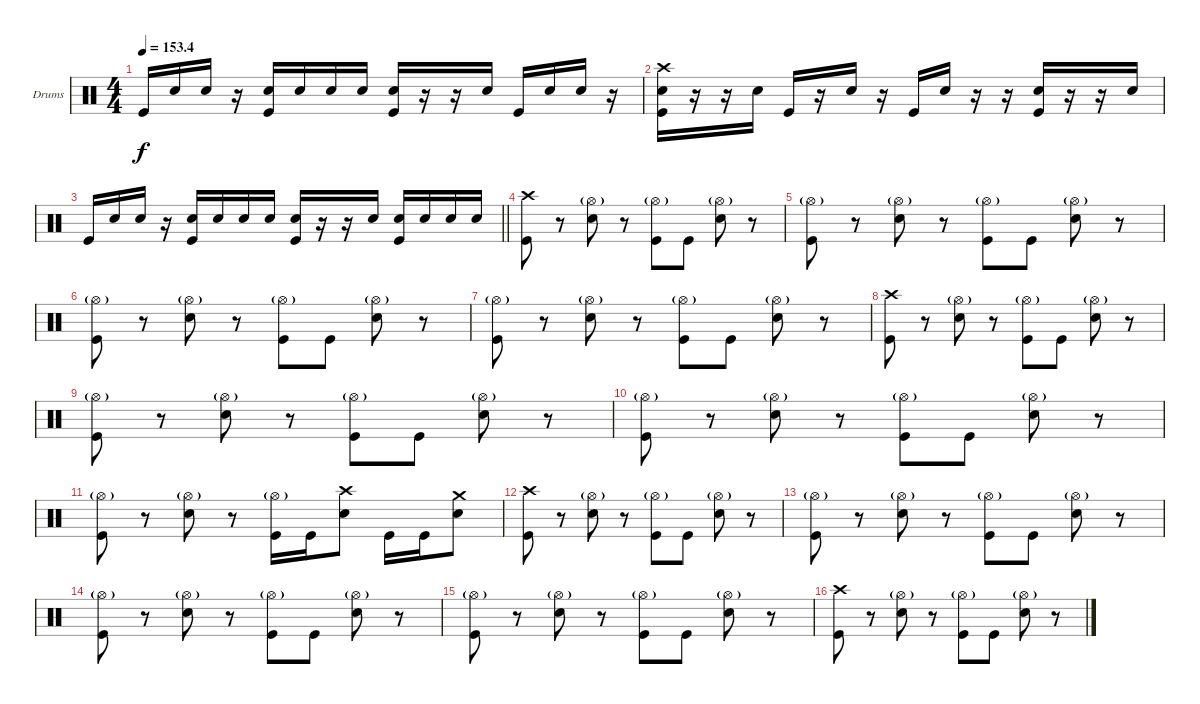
\bracketExtendMode groupsimilarinstruments
\firstSystemTrackNameOrientation horizontal
\otherSystemsTrackNameOrientation horizontal
\track ("Drumkit" "Drums") {instrument percussion}
\staff {score}
\articulation defaults
\ts (4 4)
\tempo
153.4
\accidentals auto
\clef neutral
\ottava regular
\simile none
\ks c "Kick (hit)".16{dy f} "Snare (hit) 2".16 "Snare (hit) 2".16
r.16 ("Snare (hit) 2" "Kick (hit)").16 "Snare (hit) 2".16 "Snare (hit) 2".16 "Snare (hit) 2".16 ("Snare (hit) 2" "Kick (hit)").16 r.16 r.16 "Snare (hit) 2".16 "Kick (hit)".16 "Snare (hit) 2".16 "Snare (hit) 2".16 r.16 |
("Crash high (hit)" "Snare (hit) 2" "Kick (hit)").16 r.16 r.16 "Snare (hit) 2".16 "Kick (hit)".16 r.16 "Snare (hit) 2".16 r.16 "Kick (hit)".16 "Snare (hit) 2".16 r.16 r.16 ("Snare (hit) 2" "Kick (hit)").16 r.16 r.16 "Snare (hit) 2".16 |
\barLineRight lightlight "Kick (hit)".16 "Snare (hit) 2".16 "Snare (hit) 2".16
r.16 ("Snare (hit) 2" "Kick (hit)").16 "Snare (hit) 2".16 "Snare (hit) 2".16 "Snare (hit) 2".16 ("Snare (hit) 2" "Kick (hit)").16 r.16 r.16 "Snare (hit) 2".16 ("Snare (hit) 2" "Kick (hit)").16 "Snare (hit) 2".16 "Snare (hit) 2".16 "Snare (hit) 2".16 |
("Crash high (hit)" "Kick (hit)").8 r.8 ("Hi-Hat (open)"{g} "Snare (hit) 2").8 r.8 ("Hi-Hat (open)"{g} "Kick (hit)").8 "Kick (hit)".8 ("Hi-Hat (open)"{g} "Snare (hit) 2").8 r.8 |
("Hi-Hat (open)"{g} "Kick (hit)").8 r.8 ("Hi-Hat (open)"{g} "Snare (hit) 2").8 r.8 ("Hi-Hat (open)"{g} "Kick (hit)").8 "Kick (hit)".8 ("Hi-Hat (open)"{g} "Snare (hit) 2").8 r.8 |
("Hi-Hat (open)"{g} "Kick (hit)").8 r.8 ("Hi-Hat (open)"{g} "Snare (hit) 2").8 r.8 ("Hi-Hat (open)"{g} "Kick (hit)").8 "Kick (hit)".8 ("Hi-Hat (open)"{g} "Snare (hit) 2").8 r.8 |
("Hi-Hat (open)"{g} "Kick (hit)").8 r.8 ("Hi-Hat (open)"{g} "Snare (hit) 2").8 r.8 ("Hi-Hat (open)"{g} "Kick (hit)").8 "Kick (hit)".8 ("Hi-Hat (open)"{g} "Snare (hit) 2").8 r.8 |
("Crash high (hit)" "Kick (hit)").8 r.8 ("Hi-Hat (open)"{g} "Snare (hit) 2").8 r.8 ("Hi-Hat (open)"{g} "Kick (hit)").8 "Kick (hit)".8 ("Hi-Hat (open)"{g} "Snare (hit) 2").8 r.8 |
("Hi-Hat (open)"{g} "Kick (hit)").8 r.8 ("Hi-Hat (open)"{g} "Snare (hit) 2").8 r.8 ("Hi-Hat (open)"{g} "Kick (hit)").8 "Kick (hit)".8 ("Hi-Hat (open)"{g} "Snare (hit) 2").8 r.8 |
("Hi-Hat (open)"{g} "Kick (hit)").8 r.8 ("Hi-Hat (open)"{g} "Snare (hit) 2").8 r.8 ("Hi-Hat (open)"{g} "Kick (hit)").8 "Kick (hit)".8 ("Hi-Hat (open)"{g} "Snare (hit) 2").8 r.8 |
("Hi-Hat (open)"{g} "Kick (hit)").8 r.8 ("Hi-Hat (open)"{g} "Snare (hit) 2").8 r.8 ("Hi-Hat (open)"{g} "Kick (hit)").16 "Kick (hit)".16 ("Crash high (hit)" "Snare (hit) 2").8 "Kick (hit)".16 "Kick (hit)".16 ("Crash medium (hit)" "Snare (hit) 2").8 |
("Crash high (hit)" "Kick (hit)").8 r.8 ("Hi-Hat (open)"{g} "Snare (hit) 2").8 r.8 ("Hi-Hat (open)"{g} "Kick (hit)").8 "Kick (hit)".8 ("Hi-Hat (open)"{g} "Snare (hit) 2").8 r.8 |
("Hi-Hat (open)"{g} "Kick (hit)").8 r.8 ("Hi-Hat (open)"{g} "Snare (hit) 2").8 r.8 ("Hi-Hat (open)"{g} "Kick (hit)").8 "Kick (hit)".8 ("Hi-Hat (open)"{g} "Snare (hit) 2").8 r.8 |
("Hi-Hat (open)"{g} "Kick (hit)").8 r.8 ("Hi-Hat (open)"{g} "Snare (hit) 2").8 r.8 ("Hi-Hat (open)"{g} "Kick (hit)").8 "Kick (hit)".8 ("Hi-Hat (open)"{g} "Snare (hit) 2").8 r.8 |
("Hi-Hat (open)"{g} "Kick (hit)").8 r.8 ("Hi-Hat (open)"{g} "Snare (hit) 2").8 r.8 ("Hi-Hat (open)"{g} "Kick (hit)").8 "Kick (hit)".8 ("Hi-Hat (open)"{g} "Snare (hit) 2").8 r.8 |
("Crash high (hit)" "Kick (hit)").8 r.8 ("Hi-Hat (open)"{g} "Snare (hit) 2").8 r.8 ("Hi-Hat (open)"{g} "Kick (hit)").8 "Kick (hit)".8 ("Hi-Hat (open)"{g} "Snare (hit) 2").8 r.8
